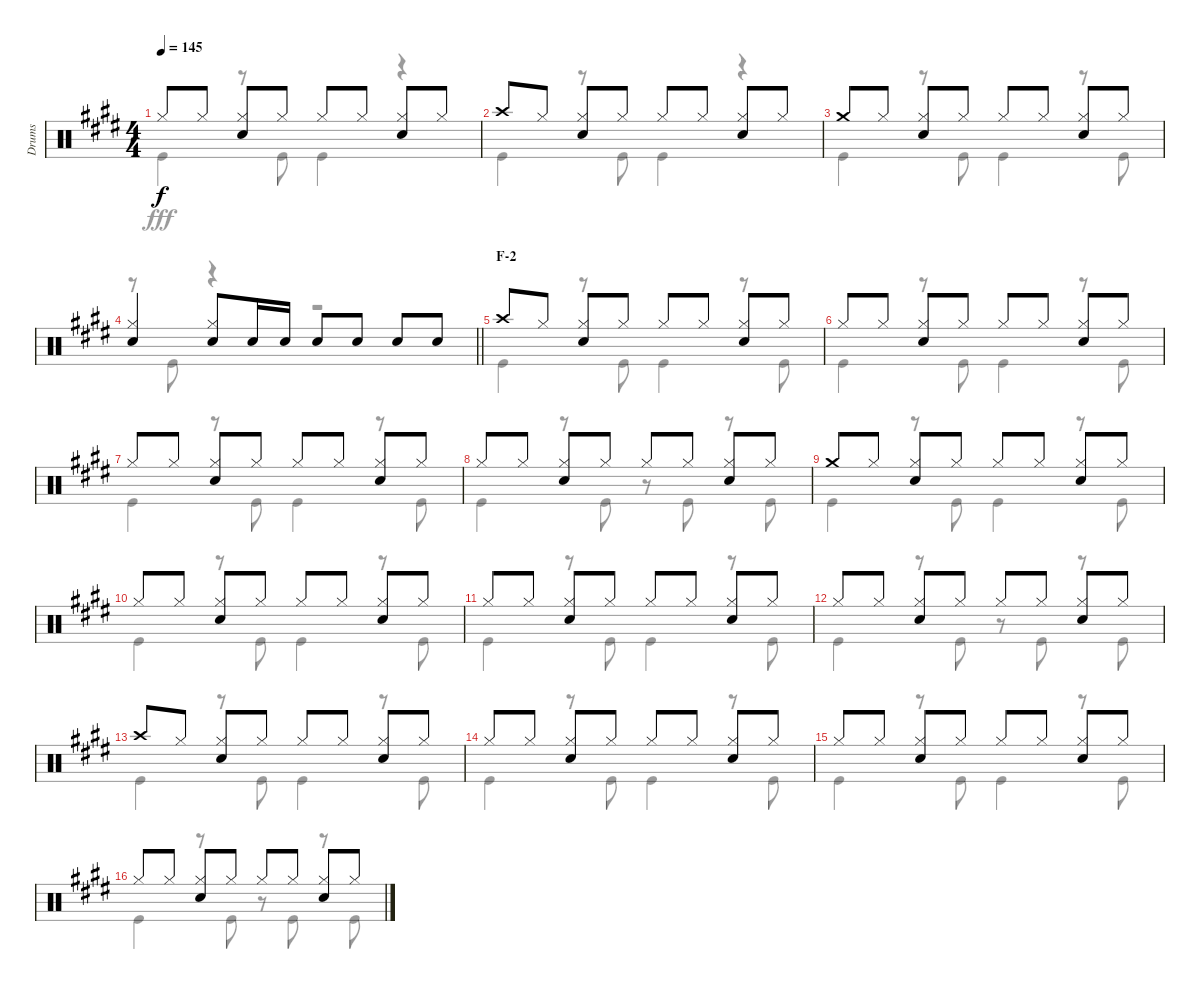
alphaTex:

\track ("Drums" "Drums") {instrument percussion}
\staff {score}
\articulation defaults
\voice
\ts (4 4)
\tempo 145
\clef neutral
\ks e "Hi-Hat (closed)".8{dy f} "Hi-Hat (closed)".8
("Hi-Hat (closed)" "Snare (hit) 2").8 "Hi-Hat (closed)".8 "Hi-Hat (closed)".8 "Hi-Hat (closed)".8 ("Hi-Hat (closed)" "Snare (hit) 2").8 "Hi-Hat (closed)".8 |
"Crash high (hit)".8 "Hi-Hat (closed)".8 ("Hi-Hat (closed)" "Snare (hit) 2").8 "Hi-Hat (closed)".8 "Hi-Hat (closed)".8 "Hi-Hat (closed)".8 ("Hi-Hat (closed)" "Snare (hit) 2").8 "Hi-Hat (closed)".8 |
"Crash medium (hit)".8 "Hi-Hat (closed)".8 ("Hi-Hat (closed)" "Snare (hit) 2").8 "Hi-Hat (closed)".8 "Hi-Hat (closed)".8 "Hi-Hat (closed)".8 ("Hi-Hat (closed)" "Snare (hit) 2").8 "Hi-Hat (closed)".8 |
\barLineRight lightlight
("Hi-Hat (closed)" "Snare (hit) 2").4 ("Hi-Hat (closed)" "Snare (hit) 2").8 "Snare (hit) 2".16 "Snare (hit) 2".16 "Snare (hit) 2".8 "Snare (hit) 2".8 "Snare (hit) 2".8 "Snare (hit) 2".8 |
\section ("" "F-2")
"Crash high (hit)".8 "Hi-Hat (closed)".8 ("Hi-Hat (closed)" "Snare (hit) 2").8 "Hi-Hat (closed)".8 "Hi-Hat (closed)".8 "Hi-Hat (closed)".8 ("Hi-Hat (closed)" "Snare (hit) 2").8 "Hi-Hat (closed)".8 |
"Hi-Hat (closed)".8 "Hi-Hat (closed)".8 ("Hi-Hat (closed)" "Snare (hit) 2").8 "Hi-Hat (closed)".8 "Hi-Hat (closed)".8 "Hi-Hat (closed)".8 ("Hi-Hat (closed)" "Snare (hit) 2").8 "Hi-Hat (closed)".8 |
"Hi-Hat (closed)".8 "Hi-Hat (closed)".8 ("Hi-Hat (closed)" "Snare (hit) 2").8 "Hi-Hat (closed)".8 "Hi-Hat (closed)".8 "Hi-Hat (closed)".8 ("Hi-Hat (closed)" "Snare (hit) 2").8 "Hi-Hat (closed)".8 |
"Hi-Hat (closed)".8 "Hi-Hat (closed)".8 ("Hi-Hat (closed)" "Snare (hit) 2").8 "Hi-Hat (closed)".8 "Hi-Hat (closed)".8 "Hi-Hat (closed)".8 ("Hi-Hat (closed)" "Snare (hit) 2").8 "Hi-Hat (closed)".8 |
"Crash medium (hit)".8 "Hi-Hat (closed)".8 ("Hi-Hat (closed)" "Snare (hit) 2").8 "Hi-Hat (closed)".8 "Hi-Hat (closed)".8 "Hi-Hat (closed)".8 ("Hi-Hat (closed)" "Snare (hit) 2").8 "Hi-Hat (closed)".8 |
"Hi-Hat (closed)".8 "Hi-Hat (closed)".8 ("Hi-Hat (closed)" "Snare (hit) 2").8 "Hi-Hat (closed)".8 "Hi-Hat (closed)".8 "Hi-Hat (closed)".8 ("Hi-Hat (closed)" "Snare (hit) 2").8 "Hi-Hat (closed)".8 |
"Hi-Hat (closed)".8 "Hi-Hat (closed)".8 ("Hi-Hat (closed)" "Snare (hit) 2").8 "Hi-Hat (closed)".8 "Hi-Hat (closed)".8 "Hi-Hat (closed)".8 ("Hi-Hat (closed)" "Snare (hit) 2").8 "Hi-Hat (closed)".8 |
"Hi-Hat (closed)".8 "Hi-Hat (closed)".8 ("Hi-Hat (closed)" "Snare (hit) 2").8 "Hi-Hat (closed)".8 "Hi-Hat (closed)".8 "Hi-Hat (closed)".8 ("Hi-Hat (closed)" "Snare (hit) 2").8 "Hi-Hat (closed)".8 |
"Crash high (hit)".8 "Hi-Hat (closed)".8 ("Hi-Hat (closed)" "Snare (hit) 2").8 "Hi-Hat (closed)".8 "Hi-Hat (closed)".8 "Hi-Hat (closed)".8 ("Hi-Hat (closed)" "Snare (hit) 2").8 "Hi-Hat (closed)".8 |
"Hi-Hat (closed)".8 "Hi-Hat (closed)".8 ("Hi-Hat (closed)" "Snare (hit) 2").8 "Hi-Hat (closed)".8 "Hi-Hat (closed)".8 "Hi-Hat (closed)".8 ("Hi-Hat (closed)" "Snare (hit) 2").8 "Hi-Hat (closed)".8 |
"Hi-Hat (closed)".8 "Hi-Hat (closed)".8 ("Hi-Hat (closed)" "Snare (hit) 2").8 "Hi-Hat (closed)".8 "Hi-Hat (closed)".8 "Hi-Hat (closed)".8 ("Hi-Hat (closed)" "Snare (hit) 2").8 "Hi-Hat (closed)".8 |
"Hi-Hat (closed)".8 "Hi-Hat (closed)".8 ("Hi-Hat (closed)" "Snare (hit) 2").8 "Hi-Hat (closed)".8 "Hi-Hat (closed)".8 "Hi-Hat (closed)".8 ("Hi-Hat (closed)" "Snare (hit) 2").8 "Hi-Hat (closed)".8
\voice
\clef neutral
\ottava regular
\simile none
\ks e "Kick (hit)".4{dy fff}
r.8 "Kick (hit)".8 "Kick (hit)".4 r.4 |
"Kick (hit)".4 r.8 "Kick (hit)".8 "Kick (hit)".4 r.4 |
"Kick (hit)".4 r.8 "Kick (hit)".8 "Kick (hit)".4 r.8 "Kick (hit)".8 |
\barLineRight lightlight
r.8 "Kick (hit)".8 r.4 r.2 |
"Kick (hit)".4 r.8 "Kick (hit)".8 "Kick (hit)".4 r.8 "Kick (hit)".8 |
"Kick (hit)".4 r.8 "Kick (hit)".8 "Kick (hit)".4 r.8 "Kick (hit)".8 |
"Kick (hit)".4 r.8 "Kick (hit)".8 "Kick (hit)".4 r.8 "Kick (hit)".8 |
"Kick (hit)".4 r.8 "Kick (hit)".8 r.8 "Kick (hit)".8 r.8 "Kick (hit)".8 |
"Kick (hit)".4 r.8 "Kick (hit)".8 "Kick (hit)".4 r.8 "Kick (hit)".8 |
"Kick (hit)".4 r.8 "Kick (hit)".8 "Kick (hit)".4 r.8 "Kick (hit)".8 |
"Kick (hit)".4 r.8 "Kick (hit)".8 "Kick (hit)".4 r.8 "Kick (hit)".8 |
"Kick (hit)".4 r.8 "Kick (hit)".8 r.8 "Kick (hit)".8 r.8 "Kick (hit)".8 |
"Kick (hit)".4 r.8 "Kick (hit)".8 "Kick (hit)".4 r.8 "Kick (hit)".8 |
"Kick (hit)".4 r.8 "Kick (hit)".8 "Kick (hit)".4 r.8 "Kick (hit)".8 |
"Kick (hit)".4 r.8 "Kick (hit)".8 "Kick (hit)".4 r.8 "Kick (hit)".8 |
"Kick (hit)".4 r.8 "Kick (hit)".8 r.8 "Kick (hit)".8 r.8 "Kick (hit)".8
